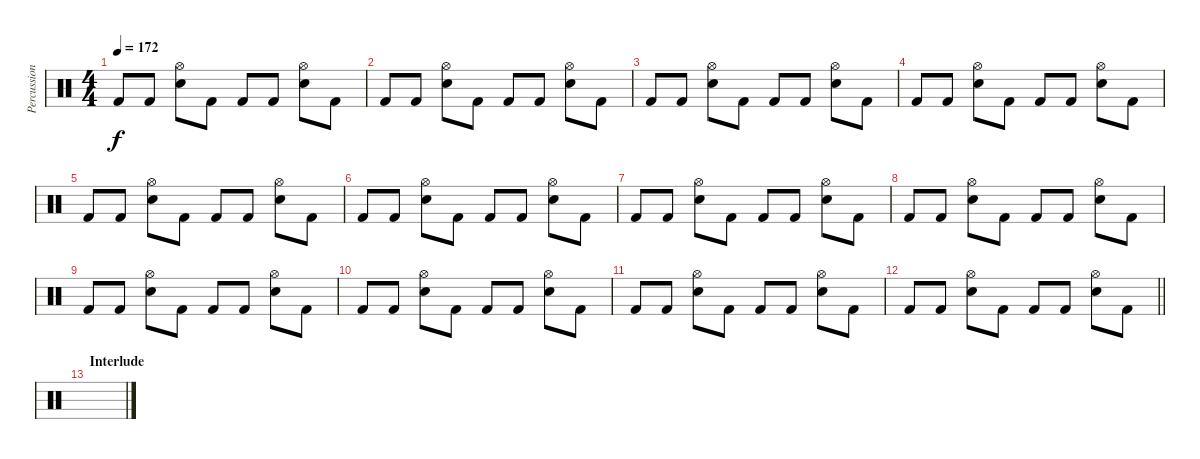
\track ("Percussion" "Percussion") {instrument percussion}
\staff {score}
\articulation defaults
\ts (4 4)
\tempo 172
\clef neutral
\ks c "Kick (hit) 2".8{dy f} "Kick (hit) 2".8
("Hi-Hat (open)" "Electric Snare (hit)").8 "Kick (hit) 2".8 "Kick (hit) 2".8 "Kick (hit) 2".8 ("Hi-Hat (open)" "Electric Snare (hit)").8 "Kick (hit) 2".8 |
"Kick (hit) 2".8 "Kick (hit) 2".8 ("Hi-Hat (open)" "Electric Snare (hit)").8 "Kick (hit) 2".8 "Kick (hit) 2".8 "Kick (hit) 2".8 ("Hi-Hat (open)" "Electric Snare (hit)").8 "Kick (hit) 2".8 |
"Kick (hit) 2".8 "Kick (hit) 2".8 ("Hi-Hat (open)" "Electric Snare (hit)").8 "Kick (hit) 2".8 "Kick (hit) 2".8 "Kick (hit) 2".8 ("Hi-Hat (open)" "Electric Snare (hit)").8 "Kick (hit) 2".8 |
"Kick (hit) 2".8 "Kick (hit) 2".8 ("Hi-Hat (open)" "Electric Snare (hit)").8 "Kick (hit) 2".8 "Kick (hit) 2".8 "Kick (hit) 2".8 ("Hi-Hat (open)" "Electric Snare (hit)").8 "Kick (hit) 2".8 |
"Kick (hit) 2".8 "Kick (hit) 2".8 ("Hi-Hat (open)" "Electric Snare (hit)").8 "Kick (hit) 2".8 "Kick (hit) 2".8 "Kick (hit) 2".8 ("Hi-Hat (open)" "Electric Snare (hit)").8 "Kick (hit) 2".8 |
"Kick (hit) 2".8 "Kick (hit) 2".8 ("Hi-Hat (open)" "Electric Snare (hit)").8 "Kick (hit) 2".8 "Kick (hit) 2".8 "Kick (hit) 2".8 ("Hi-Hat (open)" "Electric Snare (hit)").8 "Kick (hit) 2".8 |
"Kick (hit) 2".8 "Kick (hit) 2".8 ("Hi-Hat (open)" "Electric Snare (hit)").8 "Kick (hit) 2".8 "Kick (hit) 2".8 "Kick (hit) 2".8 ("Hi-Hat (open)" "Electric Snare (hit)").8 "Kick (hit) 2".8 |
"Kick (hit) 2".8 "Kick (hit) 2".8 ("Hi-Hat (open)" "Electric Snare (hit)").8 "Kick (hit) 2".8 "Kick (hit) 2".8 "Kick (hit) 2".8 ("Hi-Hat (open)" "Electric Snare (hit)").8 "Kick (hit) 2".8 |
"Kick (hit) 2".8 "Kick (hit) 2".8 ("Hi-Hat (open)" "Electric Snare (hit)").8 "Kick (hit) 2".8 "Kick (hit) 2".8 "Kick (hit) 2".8 ("Hi-Hat (open)" "Electric Snare (hit)").8 "Kick (hit) 2".8 |
"Kick (hit) 2".8 "Kick (hit) 2".8 ("Hi-Hat (open)" "Electric Snare (hit)").8 "Kick (hit) 2".8 "Kick (hit) 2".8 "Kick (hit) 2".8 ("Hi-Hat (open)" "Electric Snare (hit)").8 "Kick (hit) 2".8 |
"Kick (hit) 2".8 "Kick (hit) 2".8 ("Hi-Hat (open)" "Electric Snare (hit)").8 "Kick (hit) 2".8 "Kick (hit) 2".8 "Kick (hit) 2".8 ("Hi-Hat (open)" "Electric Snare (hit)").8 "Kick (hit) 2".8 |
\barLineRight lightlight "Kick (hit) 2".8 "Kick (hit) 2".8
("Hi-Hat (open)" "Electric Snare (hit)").8 "Kick (hit) 2".8 "Kick (hit) 2".8 "Kick (hit) 2".8 ("Hi-Hat (open)" "Electric Snare (hit)").8 "Kick (hit) 2".8 |
\section ("" "Interlude")
